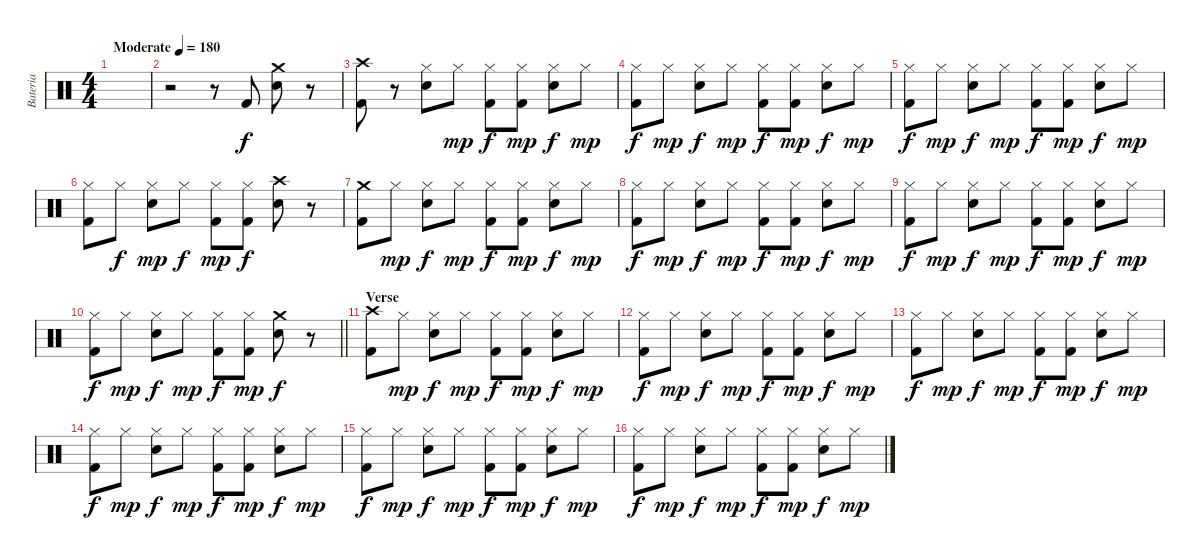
\track ("Bateria" "Bateria") {instrument percussion}
\staff {score}
\articulation defaults
\ts (4 4)
\tempo (180 "Moderate")
\clef neutral
\ks c
|
r.2 r.8 "Kick (hit) 2".8 ("Crash medium (hit)" "Electric Snare (hit)").8 r.8 |
("Crash high (hit)" "Kick (hit) 2").8 r.8 ("Hi-Hat (closed)" "Electric Snare (hit)").8 "Hi-Hat (closed)".8{dy mp} ("Hi-Hat (closed)" "Kick (hit) 2").8{dy f} ("Hi-Hat (closed)" "Kick (hit) 2").8{dy mp} ("Hi-Hat (closed)" "Electric Snare (hit)").8{dy f} "Hi-Hat (closed)".8{dy mp} |
("Hi-Hat (closed)" "Kick (hit) 2").8{dy f} "Hi-Hat (closed)".8{dy mp} ("Hi-Hat (closed)" "Electric Snare (hit)").8{dy f} "Hi-Hat (closed)".8{dy mp} ("Hi-Hat (closed)" "Kick (hit) 2").8{dy f} ("Hi-Hat (closed)" "Kick (hit) 2").8{dy mp} ("Hi-Hat (closed)" "Electric Snare (hit)").8{dy f} "Hi-Hat (closed)".8{dy mp} |
("Hi-Hat (closed)" "Kick (hit) 2").8{dy f} "Hi-Hat (closed)".8{dy mp} ("Hi-Hat (closed)" "Electric Snare (hit)").8{dy f} "Hi-Hat (closed)".8{dy mp} ("Hi-Hat (closed)" "Kick (hit) 2").8{dy f} ("Hi-Hat (closed)" "Kick (hit) 2").8{dy mp} ("Hi-Hat (closed)" "Electric Snare (hit)").8{dy f} "Hi-Hat (closed)".8{dy mp} |
("Hi-Hat (closed)" "Kick (hit) 2").8 "Hi-Hat (closed)".8{dy f} ("Hi-Hat (closed)" "Electric Snare (hit)").8{dy mp} "Hi-Hat (closed)".8{dy f} ("Hi-Hat (closed)" "Kick (hit) 2").8{dy mp} ("Hi-Hat (closed)" "Kick (hit) 2").8{dy f} ("Crash high (hit)" "Electric Snare (hit)").8 r.8 |
("Crash medium (hit)" "Kick (hit) 2").8 "Hi-Hat (closed)".8{dy mp} ("Hi-Hat (closed)" "Electric Snare (hit)").8{dy f} "Hi-Hat (closed)".8{dy mp} ("Hi-Hat (closed)" "Kick (hit) 2").8{dy f} ("Hi-Hat (closed)" "Kick (hit) 2").8{dy mp} ("Hi-Hat (closed)" "Electric Snare (hit)").8{dy f} "Hi-Hat (closed)".8{dy mp} |
("Hi-Hat (closed)" "Kick (hit) 2").8{dy f} "Hi-Hat (closed)".8{dy mp} ("Hi-Hat (closed)" "Electric Snare (hit)").8{dy f} "Hi-Hat (closed)".8{dy mp} ("Hi-Hat (closed)" "Kick (hit) 2").8{dy f} ("Hi-Hat (closed)" "Kick (hit) 2").8{dy mp} ("Hi-Hat (closed)" "Electric Snare (hit)").8{dy f} "Hi-Hat (closed)".8{dy mp} |
("Hi-Hat (closed)" "Kick (hit) 2").8{dy f} "Hi-Hat (closed)".8{dy mp} ("Hi-Hat (closed)" "Electric Snare (hit)").8{dy f} "Hi-Hat (closed)".8{dy mp} ("Hi-Hat (closed)" "Kick (hit) 2").8{dy f} ("Hi-Hat (closed)" "Kick (hit) 2").8{dy mp} ("Hi-Hat (closed)" "Electric Snare (hit)").8{dy f} "Hi-Hat (closed)".8{dy mp} |
\barLineRight lightlight
("Hi-Hat (closed)" "Kick (hit) 2").8{dy f} "Hi-Hat (closed)".8{dy mp} ("Hi-Hat (closed)" "Electric Snare (hit)").8{dy f} "Hi-Hat (closed)".8{dy mp} ("Hi-Hat (closed)" "Kick (hit) 2").8{dy f} ("Hi-Hat (closed)" "Kick (hit) 2").8{dy mp} ("Crash medium (hit)" "Electric Snare (hit)").8{dy f} r.8 |
\section ("" "Verse")
("Crash high (hit)" "Kick (hit) 2").8 "Hi-Hat (closed)".8{dy mp} ("Hi-Hat (closed)" "Electric Snare (hit)").8{dy f} "Hi-Hat (closed)".8{dy mp} ("Hi-Hat (closed)" "Kick (hit) 2").8{dy f} ("Hi-Hat (closed)" "Kick (hit) 2").8{dy mp} ("Hi-Hat (closed)" "Electric Snare (hit)").8{dy f} "Hi-Hat (closed)".8{dy mp} |
("Hi-Hat (closed)" "Kick (hit) 2").8{dy f} "Hi-Hat (closed)".8{dy mp} ("Hi-Hat (closed)" "Electric Snare (hit)").8{dy f} "Hi-Hat (closed)".8{dy mp} ("Hi-Hat (closed)" "Kick (hit) 2").8{dy f} ("Hi-Hat (closed)" "Kick (hit) 2").8{dy mp} ("Hi-Hat (closed)" "Electric Snare (hit)").8{dy f} "Hi-Hat (closed)".8{dy mp} |
("Hi-Hat (closed)" "Kick (hit) 2").8{dy f} "Hi-Hat (closed)".8{dy mp} ("Hi-Hat (closed)" "Electric Snare (hit)").8{dy f} "Hi-Hat (closed)".8{dy mp} ("Hi-Hat (closed)" "Kick (hit) 2").8{dy f} ("Hi-Hat (closed)" "Kick (hit) 2").8{dy mp} ("Hi-Hat (closed)" "Electric Snare (hit)").8{dy f} "Hi-Hat (closed)".8{dy mp} |
("Hi-Hat (closed)" "Kick (hit) 2").8{dy f} "Hi-Hat (closed)".8{dy mp} ("Hi-Hat (closed)" "Electric Snare (hit)").8{dy f} "Hi-Hat (closed)".8{dy mp} ("Hi-Hat (closed)" "Kick (hit) 2").8{dy f} ("Hi-Hat (closed)" "Kick (hit) 2").8{dy mp} ("Hi-Hat (closed)" "Electric Snare (hit)").8{dy f} "Hi-Hat (closed)".8{dy mp} |
("Hi-Hat (closed)" "Kick (hit) 2").8{dy f} "Hi-Hat (closed)".8{dy mp} ("Hi-Hat (closed)" "Electric Snare (hit)").8{dy f} "Hi-Hat (closed)".8{dy mp} ("Hi-Hat (closed)" "Kick (hit) 2").8{dy f} ("Hi-Hat (closed)" "Kick (hit) 2").8{dy mp} ("Hi-Hat (closed)" "Electric Snare (hit)").8{dy f} "Hi-Hat (closed)".8{dy mp} |
("Hi-Hat (closed)" "Kick (hit) 2").8{dy f} "Hi-Hat (closed)".8{dy mp} ("Hi-Hat (closed)" "Electric Snare (hit)").8{dy f} "Hi-Hat (closed)".8{dy mp} ("Hi-Hat (closed)" "Kick (hit) 2").8{dy f} ("Hi-Hat (closed)" "Kick (hit) 2").8{dy mp} ("Hi-Hat (closed)" "Electric Snare (hit)").8{dy f} "Hi-Hat (closed)".8{dy mp}
